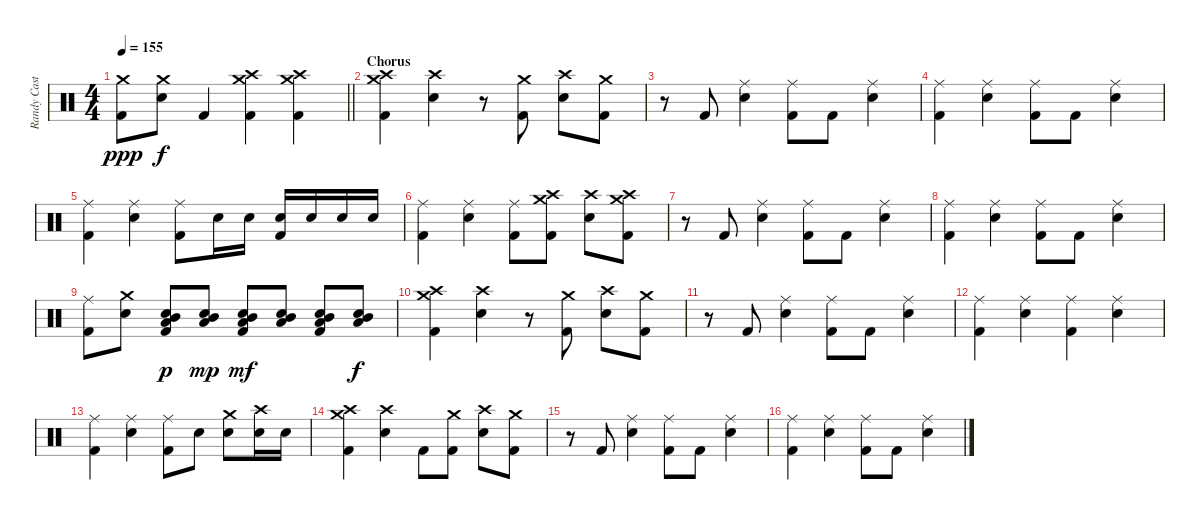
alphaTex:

\track ("Randy Castillo - Drums" "Randy Cast") {instrument percussion}
\staff {score}
\articulation defaults
\ts (4 4)
\tempo 155
\clef neutral
\barLineRight lightlight
\ks c
("Crash medium (hit)" "Kick (hit) 2").8{dy ppp} ("Crash medium (hit)" "Snare (hit) 2").8{dy f} "Kick (hit) 2".4 ("Crash medium (hit)" "Crash high (hit)" "Kick (hit) 2").4 ("Crash high (hit)" "Crash medium (hit)" "Kick (hit) 2").4 |
\section ("" "Chorus")
("Crash medium (hit)" "Crash high (hit)" "Kick (hit) 2").4 ("Crash high (hit)" "Snare (hit) 2").4 r.8 ("Crash medium (hit)" "Kick (hit) 2").8 ("Crash high (hit)" "Snare (hit) 2").8 ("Crash medium (hit)" "Kick (hit) 2").8 |
r.8 "Kick (hit) 2".8 ("Ride (middle)" "Snare (hit) 2").4 ("Ride (middle)" "Kick (hit) 2").8 "Kick (hit) 2".8 ("Ride (middle)" "Snare (hit) 2").4 |
("Ride (middle)" "Kick (hit) 2").4 ("Ride (middle)" "Snare (hit) 2").4 ("Ride (middle)" "Kick (hit) 2").8 "Kick (hit) 2".8 ("Ride (middle)" "Snare (hit) 2").4 |
("Ride (middle)" "Kick (hit) 2").4 ("Ride (middle)" "Snare (hit) 2").4 ("Ride (middle)" "Kick (hit) 2").8 "Snare (hit) 2".16 "Snare (hit) 2".16 ("Snare (hit) 2" "Kick (hit) 2").16 "Snare (hit) 2".16 "Snare (hit) 2".16 "Snare (hit) 2".16 |
("Ride (middle)" "Kick (hit) 2").4 ("Ride (middle)" "Snare (hit) 2").4 ("Ride (middle)" "Kick (hit) 2").8 ("Crash medium (hit)" "Crash high (hit)" "Kick (hit) 2").8 ("Crash high (hit)" "Snare (hit) 2").8 ("Crash medium (hit)" "Crash high (hit)" "Kick (hit) 2").8 |
r.8 "Kick (hit) 2".8 ("Ride (middle)" "Snare (hit) 2").4 ("Ride (middle)" "Kick (hit) 2").8 "Kick (hit) 2".8 ("Ride (middle)" "Snare (hit) 2").4 |
("Ride (middle)" "Kick (hit) 2").4 ("Ride (middle)" "Snare (hit) 2").4 ("Ride (middle)" "Kick (hit) 2").8 "Kick (hit) 2".8 ("Ride (middle)" "Snare (hit) 2").4 |
("Ride (middle)" "Kick (hit) 2").8 ("Crash medium (hit)" "Snare (hit) 2").8 ("Mid Tom (hit)" "Low Tom (hit)" "Snare (hit) 2" "Kick (hit) 2").8{dy p} ("Mid Tom (hit)" "Low Tom (hit)" "Snare (hit) 2").8{dy mp} ("Mid Tom (hit)" "Low Tom (hit)" "Snare (hit) 2" "Kick (hit) 2").8{dy mf} ("Mid Tom (hit)" "Low Tom (hit)" "Snare (hit) 2").8 ("Mid Tom (hit)" "Low Tom (hit)" "Snare (hit) 2" "Kick (hit) 2").8 ("Mid Tom (hit)" "Low Tom (hit)" "Snare (hit) 2").8{dy f} |
("Crash medium (hit)" "Crash high (hit)" "Kick (hit) 2").4 ("Crash high (hit)" "Snare (hit) 2").4 r.8 ("Crash medium (hit)" "Kick (hit) 2").8 ("Crash high (hit)" "Snare (hit) 2").8 ("Crash medium (hit)" "Kick (hit) 2").8 |
r.8 "Kick (hit) 2".8 ("Ride (middle)" "Snare (hit) 2").4 ("Ride (middle)" "Kick (hit) 2").8 "Kick (hit) 2".8 ("Ride (middle)" "Snare (hit) 2").4 |
("Ride (middle)" "Kick (hit) 2").4 ("Ride (middle)" "Snare (hit) 2").4 ("Ride (middle)" "Kick (hit) 2").4 ("Ride (middle)" "Snare (hit) 2").4 |
("Ride (middle)" "Kick (hit) 2").4 ("Ride (middle)" "Snare (hit) 2").4 ("Ride (middle)" "Kick (hit) 2").8 "Snare (hit) 2".8 ("Crash medium (hit)" "Snare (hit) 2").8 ("Crash high (hit)" "Snare (hit) 2").16 "Snare (hit) 2".16 |
("Crash medium (hit)" "Crash high (hit)" "Kick (hit) 2").4 ("Crash high (hit)" "Snare (hit) 2").4 "Kick (hit) 2".8 ("Crash medium (hit)" "Kick (hit) 2").8 ("Crash high (hit)" "Snare (hit) 2").8 ("Crash medium (hit)" "Kick (hit) 2").8 |
r.8 "Kick (hit) 2".8 ("Ride (middle)" "Snare (hit) 2").4 ("Ride (middle)" "Kick (hit) 2").8 "Kick (hit) 2".8 ("Ride (middle)" "Snare (hit) 2").4 |
("Ride (middle)" "Kick (hit) 2").4 ("Ride (middle)" "Snare (hit) 2").4 ("Ride (middle)" "Kick (hit) 2").8 "Kick (hit) 2".8 ("Ride (middle)" "Snare (hit) 2").4
